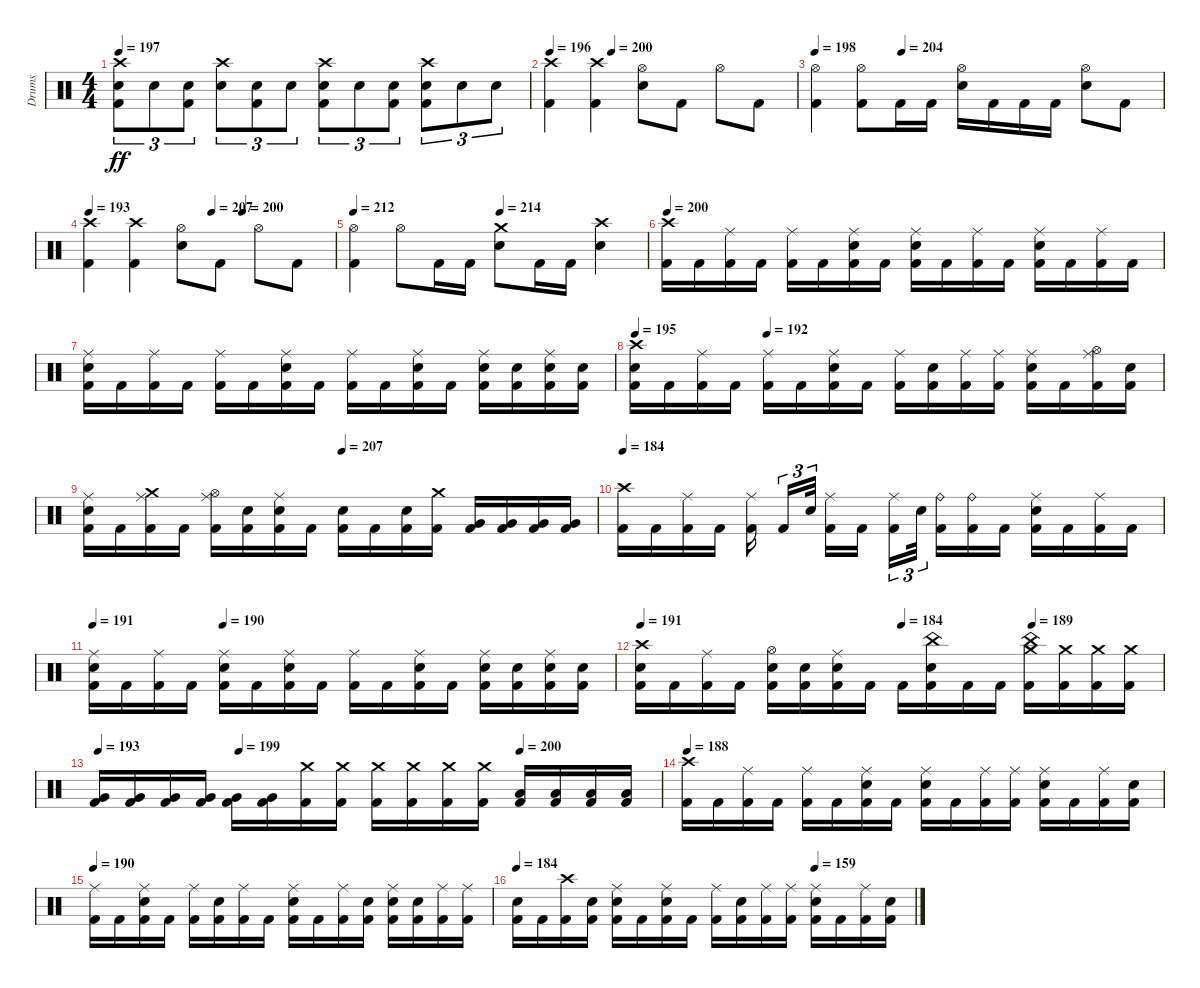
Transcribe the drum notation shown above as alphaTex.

\track ("Drums" "Drums") {instrument percussion}
\staff {score}
\articulation defaults
\ts (4 4)
\tempo 197
\clef neutral
\ks c
("Kick (hit) 2" "Snare (hit) 2" "Crash high (hit)").8{tu (3 2) dy ff} "Snare (hit) 2".8{tu (3 2)} ("Kick (hit) 2" "Snare (hit) 2").8{tu (3 2)} ("Snare (hit) 2" "Crash high (hit)").8{tu (3 2)} ("Kick (hit) 2" "Snare (hit) 2").8{tu (3 2)} "Snare (hit) 2".8{tu (3 2)} ("Kick (hit) 2" "Snare (hit) 2" "Crash high (hit)").8{tu (3 2)} "Snare (hit) 2".8{tu (3 2)} ("Kick (hit) 2" "Snare (hit) 2").8{tu (3 2)} ("Kick (hit) 2" "Snare (hit) 2" "Crash high (hit)").8{tu (3 2)} "Snare (hit) 2".8{tu (3 2)} "Snare (hit) 2".8{tu (3 2)} |
\tempo 196
\tempo (200 0.25)
("Kick (hit) 2" "Crash high (hit)").4 ("Kick (hit) 2" "Crash high (hit)").4 ("Snare (hit) 2" "Hi-Hat (open)").8 "Kick (hit) 2".8 "Hi-Hat (open)".8 "Kick (hit) 2".8 |
\tempo 198
\tempo (204 0.25)
("Kick (hit) 2" "Hi-Hat (open)").4 ("Kick (hit) 2" "Hi-Hat (open)").8 "Kick (hit) 2".16 "Kick (hit) 2".16 ("Snare (hit) 2" "Hi-Hat (open)").16 "Kick (hit) 2".16 "Kick (hit) 2".16 "Kick (hit) 2".16 ("Snare (hit) 2" "Hi-Hat (open)").8 "Kick (hit) 2".8 |
\tempo 193
\tempo (207 0.5)
\tempo (200 0.625)
("Kick (hit) 2" "Crash high (hit)").4 ("Kick (hit) 2" "Crash high (hit)").4 ("Snare (hit) 2" "Hi-Hat (open)").8 "Kick (hit) 2".8 "Hi-Hat (open)".8 "Kick (hit) 2".8 |
\tempo 212
\tempo (214 0.5)
("Kick (hit) 2" "Hi-Hat (open)").4 "Hi-Hat (open)".8 "Kick (hit) 2".16 "Kick (hit) 2".16 ("Snare (hit) 2" "Crash medium (hit)").8 "Kick (hit) 2".16 "Kick (hit) 2".16 ("Snare (hit) 2" "Crash high (hit)").4 |
\tempo 200
("Kick (hit) 2" "Crash high (hit)").16 "Kick (hit) 2".16 ("Kick (hit) 2" "Ride (middle)").16 "Kick (hit) 2".16 ("Kick (hit) 2" "Ride (middle)").16 "Kick (hit) 2".16 ("Kick (hit) 2" "Snare (hit) 2" "Ride (middle)").16 "Kick (hit) 2".16 ("Kick (hit) 2" "Snare (hit) 2" "Ride (middle)").16 "Kick (hit) 2".16 ("Kick (hit) 2" "Ride (middle)").16 "Kick (hit) 2".16 ("Kick (hit) 2" "Snare (hit) 2" "Ride (middle)").16 "Kick (hit) 2".16 ("Kick (hit) 2" "Ride (middle)").16 "Kick (hit) 2".16 |
("Kick (hit) 2" "Snare (hit) 2" "Ride (middle)").16 "Kick (hit) 2".16 ("Kick (hit) 2" "Ride (middle)").16 "Kick (hit) 2".16 ("Kick (hit) 2" "Ride (middle)").16 "Kick (hit) 2".16 ("Kick (hit) 2" "Snare (hit) 2" "Ride (middle)").16 "Kick (hit) 2".16 ("Kick (hit) 2" "Ride (middle)").16 "Kick (hit) 2".16 ("Kick (hit) 2" "Snare (hit) 2" "Ride (middle)").16 "Kick (hit) 2".16 ("Kick (hit) 2" "Snare (hit) 2" "Ride (middle)").16 ("Kick (hit) 2" "Snare (hit) 2").16 ("Kick (hit) 2" "Snare (hit) 2" "Ride (middle)").16 ("Kick (hit) 2" "Snare (hit) 2").16 |
\tempo 195
\tempo (192 0.25)
("Kick (hit) 2" "Snare (hit) 2" "Crash high (hit)").16 "Kick (hit) 2".16 ("Kick (hit) 2" "Ride (middle)").16 "Kick (hit) 2".16 ("Kick (hit) 2" "Ride (middle)").16 "Kick (hit) 2".16 ("Kick (hit) 2" "Snare (hit) 2" "Ride (middle)").16 "Kick (hit) 2".16 ("Kick (hit) 2" "Ride (middle)").16 ("Kick (hit) 2" "Snare (hit) 2").16 ("Kick (hit) 2" "Ride (middle)").16 ("Kick (hit) 2" "Ride (middle)").16 ("Kick (hit) 2" "Snare (hit) 2" "Ride (middle)").16 "Kick (hit) 2".16 ("Kick (hit) 2" "Hi-Hat (open)" "Ride (middle)").16 ("Kick (hit) 2" "Snare (hit) 2").16 |
\tempo (207 0.5)
("Kick (hit) 2" "Snare (hit) 2" "Ride (middle)").16 "Kick (hit) 2".16 ("Kick (hit) 2" "Ride (middle)" "Crash medium (hit)").16 "Kick (hit) 2".16 ("Kick (hit) 2" "Hi-Hat (open)" "Ride (middle)").16 ("Kick (hit) 2" "Snare (hit) 2").16 ("Kick (hit) 2" "Snare (hit) 2" "Ride (middle)").16 "Kick (hit) 2".16 ("Kick (hit) 2" "Snare (hit) 2").16 "Kick (hit) 2".16 ("Kick (hit) 2" "Snare (hit) 2").16 ("Kick (hit) 2" "Crash medium (hit)").16 ("Kick (hit) 2" "Very Low Tom (hit)").16 ("Kick (hit) 2" "Very Low Tom (hit)").16 ("Kick (hit) 2" "Very Low Tom (hit)").16 ("Kick (hit) 2" "Very Low Tom (hit)").16 |
\tempo 184
("Kick (hit) 2" "Crash high (hit)").16 "Kick (hit) 2".16 ("Kick (hit) 2" "Ride (middle)").16 "Kick (hit) 2".16 ("Kick (hit) 2" "Ride (middle)").16{beam splitsecondary} "Kick (hit) 2".16{tu (3 2)} "Snare (hit) 2".32{tu (3 2) beam splitsecondary} ("Kick (hit) 2" "Ride (middle)").16 "Kick (hit) 2".16 ("Kick (hit) 2" "Ride (middle)").16{tu (3 2)} "Snare (hit) 2".32{tu (3 2) beam splitsecondary} ("Kick (hit) 2" "Ride (bell)").16 ("Kick (hit) 2" "Ride (bell)").16 "Kick (hit) 2".16 ("Kick (hit) 2" "Snare (hit) 2" "Ride (middle)").16 "Kick (hit) 2".16 ("Kick (hit) 2" "Ride (middle)").16 "Kick (hit) 2".16 |
\tempo 191
\tempo (190 0.25)
("Kick (hit) 2" "Snare (hit) 2" "Ride (middle)").16 "Kick (hit) 2".16 ("Kick (hit) 2" "Ride (middle)").16 "Kick (hit) 2".16 ("Kick (hit) 2" "Snare (hit) 2" "Ride (middle)").16 "Kick (hit) 2".16 ("Kick (hit) 2" "Snare (hit) 2" "Ride (middle)").16 "Kick (hit) 2".16 ("Kick (hit) 2" "Ride (middle)").16 "Kick (hit) 2".16 ("Kick (hit) 2" "Snare (hit) 2" "Ride (middle)").16 "Kick (hit) 2".16 ("Kick (hit) 2" "Snare (hit) 2" "Ride (middle)").16 ("Kick (hit) 2" "Snare (hit) 2").16 ("Kick (hit) 2" "Snare (hit) 2" "Ride (middle)").16 ("Kick (hit) 2" "Snare (hit) 2").16 |
\tempo 191
\tempo (184 0.5)
\tempo (189 0.75)
("Kick (hit) 2" "Snare (hit) 2" "Crash high (hit)").16 "Kick (hit) 2".16 ("Kick (hit) 2" "Ride (middle)").16 "Kick (hit) 2".16 ("Kick (hit) 2" "Snare (hit) 2" "Hi-Hat (open)").16 ("Kick (hit) 2" "Snare (hit) 2").16 ("Kick (hit) 2" "Snare (hit) 2" "Ride (middle)").16 "Kick (hit) 2".16 "Kick (hit) 2".16 ("Kick (hit) 2" "Snare (hit) 2" "China (hit)").16 "Kick (hit) 2".16 "Kick (hit) 2".16 ("Kick (hit) 2" "Crash medium (hit)" "China (hit)").16 ("Kick (hit) 2" "Crash medium (hit)").16 ("Kick (hit) 2" "Crash medium (hit)").16 ("Kick (hit) 2" "Crash medium (hit)").16 |
\tempo 193
\tempo (199 0.25)
\tempo (200 0.75)
("Kick (hit) 2" "Very Low Tom (hit)").16 ("Kick (hit) 2" "Very Low Tom (hit)").16 ("Kick (hit) 2" "Very Low Tom (hit)").16 ("Kick (hit) 2" "Very Low Tom (hit)").16 ("Kick (hit) 2" "Very Low Tom (hit)").16 ("Kick (hit) 2" "Very Low Tom (hit)").16 ("Kick (hit) 2" "Crash medium (hit)").16 ("Kick (hit) 2" "Crash medium (hit)").16 ("Kick (hit) 2" "Crash medium (hit)").16 ("Kick (hit) 2" "Crash medium (hit)").16 ("Kick (hit) 2" "Crash medium (hit)").16 ("Kick (hit) 2" "Crash medium (hit)").16 ("Kick (hit) 2" "Low Floor Tom (hit)").16 ("Kick (hit) 2" "Low Floor Tom (hit)").16 ("Kick (hit) 2" "Low Floor Tom (hit)").16 ("Kick (hit) 2" "Low Floor Tom (hit)").16 |
\tempo 188
("Kick (hit) 2" "Crash high (hit)").16 "Kick (hit) 2".16 ("Kick (hit) 2" "Ride (middle)").16 "Kick (hit) 2".16 ("Kick (hit) 2" "Ride (middle)").16 "Kick (hit) 2".16 ("Kick (hit) 2" "Snare (hit) 2" "Ride (middle)").16 "Kick (hit) 2".16 ("Kick (hit) 2" "Snare (hit) 2" "Ride (middle)").16 "Kick (hit) 2".16 ("Kick (hit) 2" "Ride (middle)").16 ("Kick (hit) 2" "Ride (middle)").16 ("Kick (hit) 2" "Snare (hit) 2" "Ride (middle)").16 "Kick (hit) 2".16 ("Kick (hit) 2" "Ride (middle)").16 ("Kick (hit) 2" "Snare (hit) 2").16 |
\tempo 190
("Kick (hit) 2" "Ride (middle)").16 "Kick (hit) 2".16 ("Kick (hit) 2" "Snare (hit) 2" "Ride (middle)").16 "Kick (hit) 2".16 ("Kick (hit) 2" "Ride (middle)").16 ("Kick (hit) 2" "Snare (hit) 2").16 ("Kick (hit) 2" "Ride (middle)").16 "Kick (hit) 2".16 ("Kick (hit) 2" "Snare (hit) 2" "Ride (middle)").16 "Kick (hit) 2".16 ("Kick (hit) 2" "Ride (middle)").16 ("Kick (hit) 2" "Snare (hit) 2").16 ("Kick (hit) 2" "Snare (hit) 2" "Ride (middle)").16 ("Kick (hit) 2" "Snare (hit) 2").16 ("Kick (hit) 2" "Ride (middle)").16 ("Kick (hit) 2" "Ride (middle)").16 |
\tempo 184
\tempo (159 0.75)
("Kick (hit) 2" "Snare (hit) 2").16 "Kick (hit) 2".16 ("Kick (hit) 2" "Crash high (hit)").16 ("Kick (hit) 2" "Snare (hit) 2").16 ("Kick (hit) 2" "Snare (hit) 2" "Ride (middle)").16 "Kick (hit) 2".16 ("Kick (hit) 2" "Snare (hit) 2" "Ride (middle)").16 "Kick (hit) 2".16 ("Kick (hit) 2" "Ride (middle)").16 ("Kick (hit) 2" "Snare (hit) 2").16 ("Kick (hit) 2" "Ride (middle)").16 ("Kick (hit) 2" "Ride (middle)").16 ("Kick (hit) 2" "Snare (hit) 2" "Ride (middle)").16 "Kick (hit) 2".16 ("Kick (hit) 2" "Ride (middle)").16 ("Kick (hit) 2" "Snare (hit) 2").16
